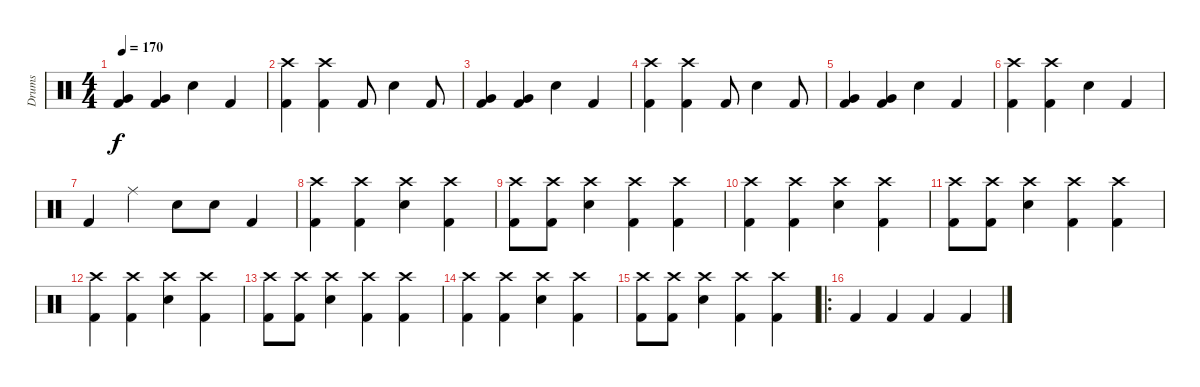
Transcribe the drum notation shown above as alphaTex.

\track ("Drums" "Drums") {instrument percussion}
\staff {score}
\articulation defaults
\ts (4 4)
\tempo 170
\clef neutral
\ks c
("Very Low Tom (hit)" "Kick (hit) 2").4{dy f} ("Kick (hit) 2" "Very Low Tom (hit)").4 "Snare (hit) 2".4 "Kick (hit) 2".4 |
("Kick (hit) 2" "Crash high (hit)").4 ("Kick (hit) 2" "Crash high (hit)").4 "Kick (hit) 2".8 "Snare (hit) 2".4 "Kick (hit) 2".8 |
("Very Low Tom (hit)" "Kick (hit) 2").4 ("Kick (hit) 2" "Very Low Tom (hit)").4 "Snare (hit) 2".4 "Kick (hit) 2".4 |
("Kick (hit) 2" "Crash high (hit)").4 ("Kick (hit) 2" "Crash high (hit)").4 "Kick (hit) 2".8 "Snare (hit) 2".4 "Kick (hit) 2".8 |
("Very Low Tom (hit)" "Kick (hit) 2").4 ("Kick (hit) 2" "Very Low Tom (hit)").4 "Snare (hit) 2".4 "Kick (hit) 2".4 |
("Kick (hit) 2" "Crash high (hit)").4 ("Kick (hit) 2" "Crash high (hit)").4 "Snare (hit) 2".4 "Kick (hit) 2".4 |
"Kick (hit) 2".4 "Ride (middle)".4 "Snare (hit) 2".8 "Snare (hit) 2".8 "Kick (hit) 2".4 |
("Crash high (hit)" "Kick (hit) 2").4 ("Crash high (hit)" "Kick (hit) 2").4 ("Crash high (hit)" "Snare (hit) 2").4 ("Crash high (hit)" "Kick (hit) 2").4 |
("Crash high (hit)" "Kick (hit) 2").8 ("Crash high (hit)" "Kick (hit) 2").8 ("Crash high (hit)" "Snare (hit) 2").4 ("Crash high (hit)" "Kick (hit) 2").4 ("Crash high (hit)" "Kick (hit) 2").4 |
("Crash high (hit)" "Kick (hit) 2").4 ("Crash high (hit)" "Kick (hit) 2").4 ("Crash high (hit)" "Snare (hit) 2").4 ("Crash high (hit)" "Kick (hit) 2").4 |
("Crash high (hit)" "Kick (hit) 2").8 ("Crash high (hit)" "Kick (hit) 2").8 ("Crash high (hit)" "Snare (hit) 2").4 ("Crash high (hit)" "Kick (hit) 2").4 ("Crash high (hit)" "Kick (hit) 2").4 |
("Crash high (hit)" "Kick (hit) 2").4 ("Crash high (hit)" "Kick (hit) 2").4 ("Crash high (hit)" "Snare (hit) 2").4 ("Crash high (hit)" "Kick (hit) 2").4 |
("Crash high (hit)" "Kick (hit) 2").8 ("Crash high (hit)" "Kick (hit) 2").8 ("Crash high (hit)" "Snare (hit) 2").4 ("Crash high (hit)" "Kick (hit) 2").4 ("Crash high (hit)" "Kick (hit) 2").4 |
("Crash high (hit)" "Kick (hit) 2").4 ("Crash high (hit)" "Kick (hit) 2").4 ("Crash high (hit)" "Snare (hit) 2").4 ("Crash high (hit)" "Kick (hit) 2").4 |
("Crash high (hit)" "Kick (hit) 2").8 ("Crash high (hit)" "Kick (hit) 2").8 ("Crash high (hit)" "Snare (hit) 2").4 ("Crash high (hit)" "Kick (hit) 2").4 ("Crash high (hit)" "Kick (hit) 2").4 |
\ro "Kick (hit) 2".4 "Kick (hit) 2".4 "Kick (hit) 2".4 "Kick (hit) 2".4
